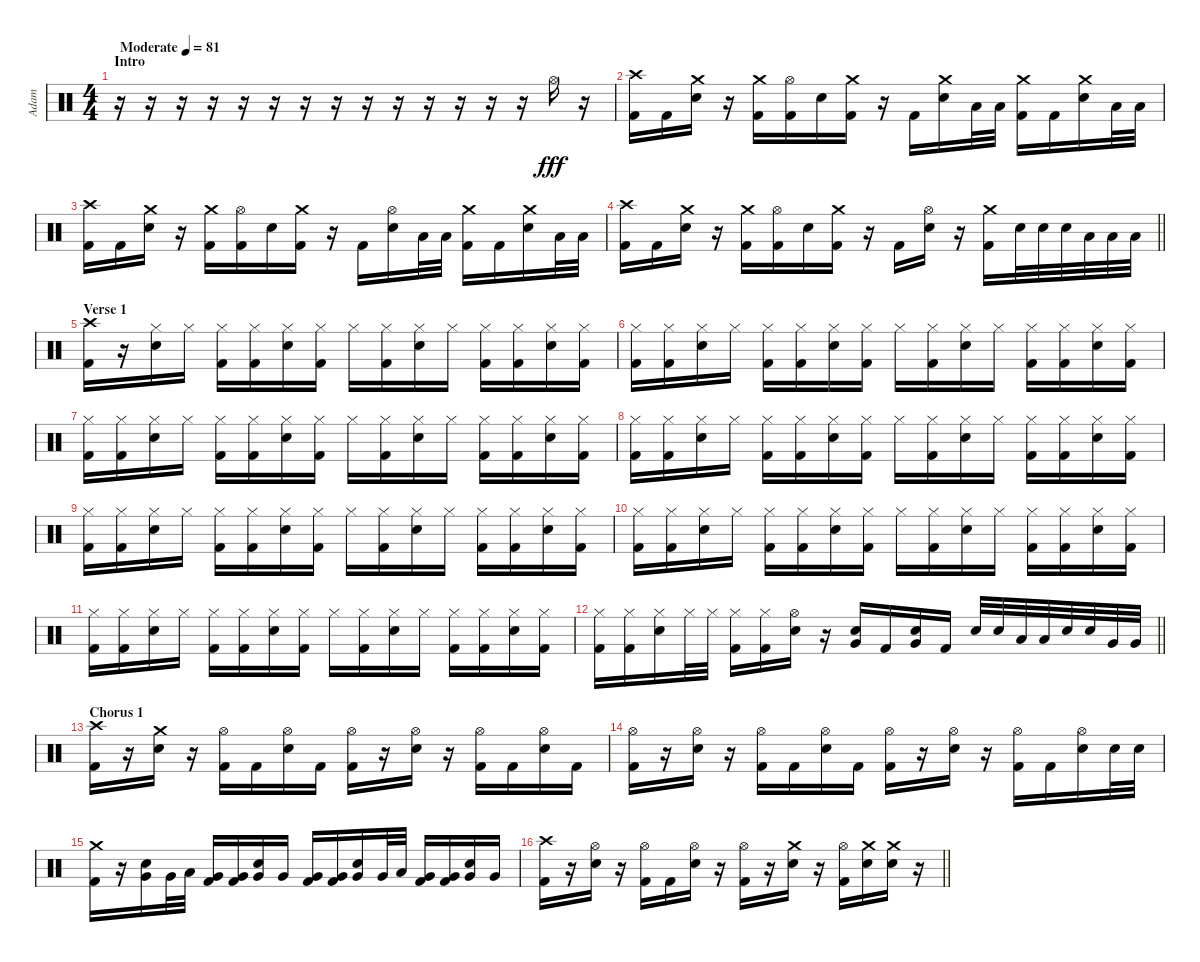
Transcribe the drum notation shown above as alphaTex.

\track ("Adam" "Adam") {instrument percussion}
\staff {score}
\articulation defaults
\ts (4 4)
\section ("" "Intro")
\tempo (81 "Moderate")
\clef neutral
\ks c
r.16{dy fff} r.16 r.16 r.16 r.16 r.16 r.16 r.16 r.16 r.16 r.16 r.16 r.16 r.16 "Hi-Hat (open)".16 r.16 |
("Crash high (hit)" "Kick (hit) 2").16 "Kick (hit) 2".16 ("Crash medium (hit)" "Electric Snare (hit)").16 r.16 ("Crash medium (hit)" "Kick (hit) 2").16 ("Hi-Hat (open)" "Kick (hit) 2").16 "Electric Snare (hit)".16 ("Crash medium (hit)" "Kick (hit) 2").16 r.16 "Kick (hit) 2".16 ("Crash medium (hit)" "Electric Snare (hit)").16 "Low Tom (hit)".32 "Low Tom (hit)".32 ("Crash medium (hit)" "Kick (hit) 2").16 "Kick (hit) 2".16 ("Crash medium (hit)" "Electric Snare (hit)").16 "Low Tom (hit)".32 "Low Tom (hit)".32 |
("Crash high (hit)" "Kick (hit) 2").16 "Kick (hit) 2".16 ("Crash medium (hit)" "Electric Snare (hit)").16 r.16 ("Crash medium (hit)" "Kick (hit) 2").16 ("Hi-Hat (open)" "Kick (hit) 2").16 "Electric Snare (hit)".16 ("Crash medium (hit)" "Kick (hit) 2").16 r.16 "Kick (hit) 2".16 ("Hi-Hat (open)" "Electric Snare (hit)").16 "Low Tom (hit)".32 "Low Tom (hit)".32 ("Crash medium (hit)" "Kick (hit) 2").16 "Kick (hit) 2".16 ("Crash medium (hit)" "Electric Snare (hit)").16 "Low Tom (hit)".32 "Low Tom (hit)".32 |
\barLineRight lightlight
("Crash high (hit)" "Kick (hit) 2").16 "Kick (hit) 2".16 ("Crash medium (hit)" "Electric Snare (hit)").16 r.16 ("Crash medium (hit)" "Kick (hit) 2").16 ("Hi-Hat (open)" "Kick (hit) 2").16 "Electric Snare (hit)".16 ("Crash medium (hit)" "Kick (hit) 2").16 r.16 "Kick (hit) 2".16 ("Hi-Hat (open)" "Electric Snare (hit)").16 r.16 ("Crash medium (hit)" "Kick (hit) 2").16 "Electric Snare (hit)".32 "Electric Snare (hit)".32 "Electric Snare (hit)".32 "Low Tom (hit)".32 "Low Tom (hit)".32 "Low Tom (hit)".32 |
\section ("" "Verse 1")
("Crash high (hit)" "Kick (hit) 2").16 r.16 ("Hi-Hat (closed)" "Electric Snare (hit)").16 "Hi-Hat (closed)".16 ("Hi-Hat (closed)" "Kick (hit) 2").16 ("Hi-Hat (closed)" "Kick (hit) 2").16 ("Hi-Hat (closed)" "Electric Snare (hit)").16 ("Hi-Hat (closed)" "Kick (hit) 2").16 "Hi-Hat (closed)".16 ("Hi-Hat (closed)" "Kick (hit) 2").16 ("Hi-Hat (closed)" "Electric Snare (hit)").16 "Hi-Hat (closed)".16 ("Hi-Hat (closed)" "Kick (hit) 2").16 ("Hi-Hat (closed)" "Kick (hit) 2").16 ("Hi-Hat (closed)" "Electric Snare (hit)").16 ("Hi-Hat (closed)" "Kick (hit) 2").16 |
("Hi-Hat (closed)" "Kick (hit) 2").16 ("Hi-Hat (closed)" "Kick (hit) 2").16 ("Hi-Hat (closed)" "Electric Snare (hit)").16 "Hi-Hat (closed)".16 ("Hi-Hat (closed)" "Kick (hit) 2").16 ("Hi-Hat (closed)" "Kick (hit) 2").16 ("Hi-Hat (closed)" "Electric Snare (hit)").16 ("Hi-Hat (closed)" "Kick (hit) 2").16 "Hi-Hat (closed)".16 ("Hi-Hat (closed)" "Kick (hit) 2").16 ("Hi-Hat (closed)" "Electric Snare (hit)").16 "Hi-Hat (closed)".16 ("Hi-Hat (closed)" "Kick (hit) 2").16 ("Hi-Hat (closed)" "Kick (hit) 2").16 ("Hi-Hat (closed)" "Electric Snare (hit)").16 ("Hi-Hat (closed)" "Kick (hit) 2").16 |
("Hi-Hat (closed)" "Kick (hit) 2").16 ("Hi-Hat (closed)" "Kick (hit) 2").16 ("Hi-Hat (closed)" "Electric Snare (hit)").16 "Hi-Hat (closed)".16 ("Hi-Hat (closed)" "Kick (hit) 2").16 ("Hi-Hat (closed)" "Kick (hit) 2").16 ("Hi-Hat (closed)" "Electric Snare (hit)").16 ("Hi-Hat (closed)" "Kick (hit) 2").16 "Hi-Hat (closed)".16 ("Hi-Hat (closed)" "Kick (hit) 2").16 ("Hi-Hat (closed)" "Electric Snare (hit)").16 "Hi-Hat (closed)".16 ("Hi-Hat (closed)" "Kick (hit) 2").16 ("Hi-Hat (closed)" "Kick (hit) 2").16 ("Hi-Hat (closed)" "Electric Snare (hit)").16 ("Hi-Hat (closed)" "Kick (hit) 2").16 |
("Hi-Hat (closed)" "Kick (hit) 2").16 ("Hi-Hat (closed)" "Kick (hit) 2").16 ("Hi-Hat (closed)" "Electric Snare (hit)").16 "Hi-Hat (closed)".16 ("Hi-Hat (closed)" "Kick (hit) 2").16 ("Hi-Hat (closed)" "Kick (hit) 2").16 ("Hi-Hat (closed)" "Electric Snare (hit)").16 ("Hi-Hat (closed)" "Kick (hit) 2").16 "Hi-Hat (closed)".16 ("Hi-Hat (closed)" "Kick (hit) 2").16 ("Hi-Hat (closed)" "Electric Snare (hit)").16 "Hi-Hat (closed)".16 ("Hi-Hat (closed)" "Kick (hit) 2").16 ("Hi-Hat (closed)" "Kick (hit) 2").16 ("Hi-Hat (closed)" "Electric Snare (hit)").16 ("Hi-Hat (closed)" "Kick (hit) 2").16 |
("Hi-Hat (closed)" "Kick (hit) 2").16 ("Hi-Hat (closed)" "Kick (hit) 2").16 ("Hi-Hat (closed)" "Electric Snare (hit)").16 "Hi-Hat (closed)".16 ("Hi-Hat (closed)" "Kick (hit) 2").16 ("Hi-Hat (closed)" "Kick (hit) 2").16 ("Hi-Hat (closed)" "Electric Snare (hit)").16 ("Hi-Hat (closed)" "Kick (hit) 2").16 "Hi-Hat (closed)".16 ("Hi-Hat (closed)" "Kick (hit) 2").16 ("Hi-Hat (closed)" "Electric Snare (hit)").16 "Hi-Hat (closed)".16 ("Hi-Hat (closed)" "Kick (hit) 2").16 ("Hi-Hat (closed)" "Kick (hit) 2").16 ("Hi-Hat (closed)" "Electric Snare (hit)").16 ("Hi-Hat (closed)" "Kick (hit) 2").16 |
("Hi-Hat (closed)" "Kick (hit) 2").16 ("Hi-Hat (closed)" "Kick (hit) 2").16 ("Hi-Hat (closed)" "Electric Snare (hit)").16 "Hi-Hat (closed)".16 ("Hi-Hat (closed)" "Kick (hit) 2").16 ("Hi-Hat (closed)" "Kick (hit) 2").16 ("Hi-Hat (closed)" "Electric Snare (hit)").16 ("Hi-Hat (closed)" "Kick (hit) 2").16 "Hi-Hat (closed)".16 ("Hi-Hat (closed)" "Kick (hit) 2").16 ("Hi-Hat (closed)" "Electric Snare (hit)").16 "Hi-Hat (closed)".16 ("Hi-Hat (closed)" "Kick (hit) 2").16 ("Hi-Hat (closed)" "Kick (hit) 2").16 ("Hi-Hat (closed)" "Electric Snare (hit)").16 ("Hi-Hat (closed)" "Kick (hit) 2").16 |
("Hi-Hat (closed)" "Kick (hit) 2").16 ("Hi-Hat (closed)" "Kick (hit) 2").16 ("Hi-Hat (closed)" "Electric Snare (hit)").16 "Hi-Hat (closed)".16 ("Hi-Hat (closed)" "Kick (hit) 2").16 ("Hi-Hat (closed)" "Kick (hit) 2").16 ("Hi-Hat (closed)" "Electric Snare (hit)").16 ("Hi-Hat (closed)" "Kick (hit) 2").16 "Hi-Hat (closed)".16 ("Hi-Hat (closed)" "Kick (hit) 2").16 ("Hi-Hat (closed)" "Electric Snare (hit)").16 "Hi-Hat (closed)".16 ("Hi-Hat (closed)" "Kick (hit) 2").16 ("Hi-Hat (closed)" "Kick (hit) 2").16 ("Hi-Hat (closed)" "Electric Snare (hit)").16 ("Hi-Hat (closed)" "Kick (hit) 2").16 |
\barLineRight lightlight
("Hi-Hat (closed)" "Kick (hit) 2").16 ("Hi-Hat (closed)" "Kick (hit) 2").16 ("Hi-Hat (closed)" "Electric Snare (hit)").16 "Hi-Hat (closed)".32 "Hi-Hat (closed)".32 ("Hi-Hat (closed)" "Kick (hit) 2").16 ("Hi-Hat (closed)" "Kick (hit) 2").16 ("Hi-Hat (open)" "Electric Snare (hit)").16 r.16 ("Electric Snare (hit)" "Very Low Tom (hit)").16 "Kick (hit) 2".16 ("Electric Snare (hit)" "Very Low Tom (hit)").16 "Kick (hit) 2".16 "Electric Snare (hit)".32 "Electric Snare (hit)".32 "Low Tom (hit)".32 "Low Tom (hit)".32 "Electric Snare (hit)".32 "Electric Snare (hit)".32 "Very Low Tom (hit)".32 "Very Low Tom (hit)".32 |
\section ("" "Chorus 1")
("Crash high (hit)" "Kick (hit) 2").16 r.16 ("Crash medium (hit)" "Electric Snare (hit)").16 r.16 ("Hi-Hat (open)" "Kick (hit) 2").16 "Kick (hit) 2".16 ("Hi-Hat (open)" "Electric Snare (hit)").16 "Kick (hit) 2".16 ("Hi-Hat (open)" "Kick (hit) 2").16 r.16 ("Hi-Hat (open)" "Electric Snare (hit)").16 r.16 ("Hi-Hat (open)" "Kick (hit) 2").16 "Kick (hit) 2".16 ("Hi-Hat (open)" "Electric Snare (hit)").16 "Kick (hit) 2".16 |
("Hi-Hat (open)" "Kick (hit) 2").16 r.16 ("Hi-Hat (open)" "Electric Snare (hit)").16 r.16 ("Hi-Hat (open)" "Kick (hit) 2").16 "Kick (hit) 2".16 ("Hi-Hat (open)" "Electric Snare (hit)").16 "Kick (hit) 2".16 ("Hi-Hat (open)" "Kick (hit) 2").16 r.16 ("Hi-Hat (open)" "Electric Snare (hit)").16 r.16 ("Hi-Hat (open)" "Kick (hit) 2").16 "Kick (hit) 2".16 ("Hi-Hat (open)" "Electric Snare (hit)").16 "Electric Snare (hit)".32 "Electric Snare (hit)".32 |
("Crash medium (hit)" "Kick (hit) 2").16 r.16 ("Electric Snare (hit)" "Very Low Tom (hit)").16 "Very Low Tom (hit)".32 "Low Tom (hit)".32 ("Very Low Tom (hit)" "Kick (hit) 2").16 ("Very Low Tom (hit)" "Kick (hit) 2").16 ("Electric Snare (hit)" "Very Low Tom (hit)").16 "Very Low Tom (hit)".16 ("Very Low Tom (hit)" "Kick (hit) 2").16 ("Very Low Tom (hit)" "Kick (hit) 2").16 ("Electric Snare (hit)" "Very Low Tom (hit)").16 "Very Low Tom (hit)".32 "Low Tom (hit)".32 ("Very Low Tom (hit)" "Kick (hit) 2").16 ("Very Low Tom (hit)" "Kick (hit) 2").16 ("Electric Snare (hit)" "Very Low Tom (hit)").16 "Very Low Tom (hit)".16 |
\barLineRight lightlight
("Crash high (hit)" "Kick (hit) 2").16 r.16 ("Hi-Hat (open)" "Electric Snare (hit)").16 r.16 ("Hi-Hat (open)" "Kick (hit) 2").16 "Kick (hit) 2".16 ("Hi-Hat (open)" "Electric Snare (hit)").16 r.16 ("Hi-Hat (open)" "Kick (hit) 2").16 r.16 ("Crash medium (hit)" "Electric Snare (hit)").16 r.16 ("Hi-Hat (open)" "Kick (hit) 2").16 ("Crash medium (hit)" "Electric Snare (hit)").16 ("Crash medium (hit)" "Electric Snare (hit)").16 r.16
